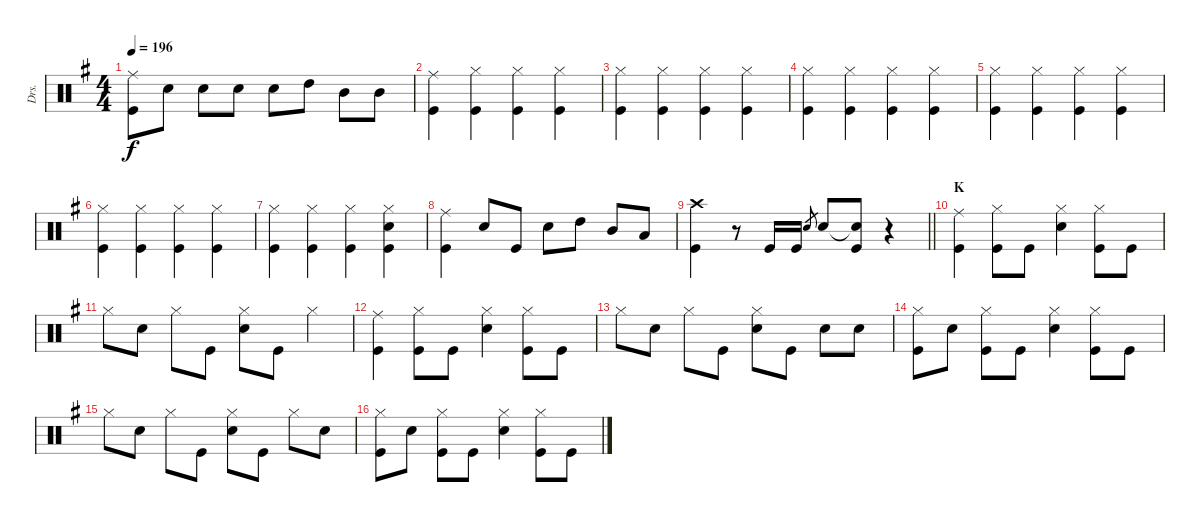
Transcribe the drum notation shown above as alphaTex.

\track ("Drs." "Drs.") {instrument percussion}
\staff {score}
\articulation defaults
\ts (4 4)
\tempo 196
\clef neutral
\ks g
("Ride (middle)" "Kick (hit)").8{dy f} "Snare (hit) 2".8 "Snare (hit) 2".8 "Snare (hit) 2".8 "Snare (hit) 2".8 "High Tom (hit)".8 "Mid Tom (hit)".8 "Mid Tom (hit)".8 |
("Ride (middle)" "Kick (hit)").4 ("Hi-Hat (closed)" "Kick (hit)").4 ("Hi-Hat (closed)" "Kick (hit)").4 ("Hi-Hat (closed)" "Kick (hit)").4 |
("Hi-Hat (closed)" "Kick (hit)").4 ("Hi-Hat (closed)" "Kick (hit)").4 ("Hi-Hat (closed)" "Kick (hit)").4 ("Hi-Hat (closed)" "Kick (hit)").4 |
("Hi-Hat (closed)" "Kick (hit)").4 ("Hi-Hat (closed)" "Kick (hit)").4 ("Hi-Hat (closed)" "Kick (hit)").4 ("Hi-Hat (closed)" "Kick (hit)").4 |
("Hi-Hat (closed)" "Kick (hit)").4 ("Hi-Hat (closed)" "Kick (hit)").4 ("Hi-Hat (closed)" "Kick (hit)").4 ("Hi-Hat (closed)" "Kick (hit)").4 |
("Hi-Hat (closed)" "Kick (hit)").4 ("Hi-Hat (closed)" "Kick (hit)").4 ("Hi-Hat (closed)" "Kick (hit)").4 ("Hi-Hat (closed)" "Kick (hit)").4 |
("Hi-Hat (closed)" "Kick (hit)").4 ("Hi-Hat (closed)" "Kick (hit)").4 ("Hi-Hat (closed)" "Kick (hit)").4 ("Hi-Hat (closed)" "Snare (hit) 2" "Kick (hit)").4 |
("Ride (middle)" "Kick (hit)").4 "Snare (hit) 2".8 "Kick (hit)".8 "Snare (hit) 2".8 "High Tom (hit)".8 "Mid Tom (hit)".8 "Low Tom (hit)".8 |
\barLineRight lightlight
("Crash high (hit)" "Kick (hit)").4 r.8 "Kick (hit)".16 "Kick (hit)".16 "Snare (hit) 2".8{gr} "Snare (hit) 2".8 ("Snare (hit)"{t} "Kick (hit)").8 r.4 |
\section ("" "K")
("Ride (middle)" "Kick (hit)").4 ("Hi-Hat (closed)" "Kick (hit)").8 "Kick (hit)".8 ("Hi-Hat (closed)" "Snare (hit) 2").4 ("Hi-Hat (closed)" "Kick (hit)").8 "Kick (hit)".8 |
"Hi-Hat (closed)".8 "Snare (hit) 2".8 "Hi-Hat (closed)".8 "Kick (hit)".8 ("Hi-Hat (closed)" "Snare (hit) 2").8 "Kick (hit)".8 "Hi-Hat (closed)".4 |
("Ride (middle)" "Kick (hit)").4 ("Hi-Hat (closed)" "Kick (hit)").8 "Kick (hit)".8 ("Hi-Hat (closed)" "Snare (hit) 2").4 ("Hi-Hat (closed)" "Kick (hit)").8 "Kick (hit)".8 |
"Hi-Hat (closed)".8 "Snare (hit) 2".8 "Hi-Hat (closed)".8 "Kick (hit)".8 ("Hi-Hat (closed)" "Snare (hit) 2").8 "Kick (hit)".8 "Snare (hit) 2".8 "Snare (hit) 2".8 |
("Hi-Hat (closed)" "Kick (hit)").8 "Snare (hit) 2".8 ("Hi-Hat (closed)" "Kick (hit)").8 "Kick (hit)".8 ("Hi-Hat (closed)" "Snare (hit) 2").4 ("Hi-Hat (closed)" "Kick (hit)").8 "Kick (hit)".8 |
"Hi-Hat (closed)".8 "Snare (hit) 2".8 "Hi-Hat (closed)".8 "Kick (hit)".8 ("Hi-Hat (closed)" "Snare (hit) 2").8 "Kick (hit)".8 "Hi-Hat (closed)".8 "Snare (hit) 2".8 |
("Hi-Hat (closed)" "Kick (hit)").8 "Snare (hit) 2".8 ("Hi-Hat (closed)" "Kick (hit)").8 "Kick (hit)".8 ("Hi-Hat (closed)" "Snare (hit) 2").4 ("Hi-Hat (closed)" "Kick (hit)").8 "Kick (hit)".8
